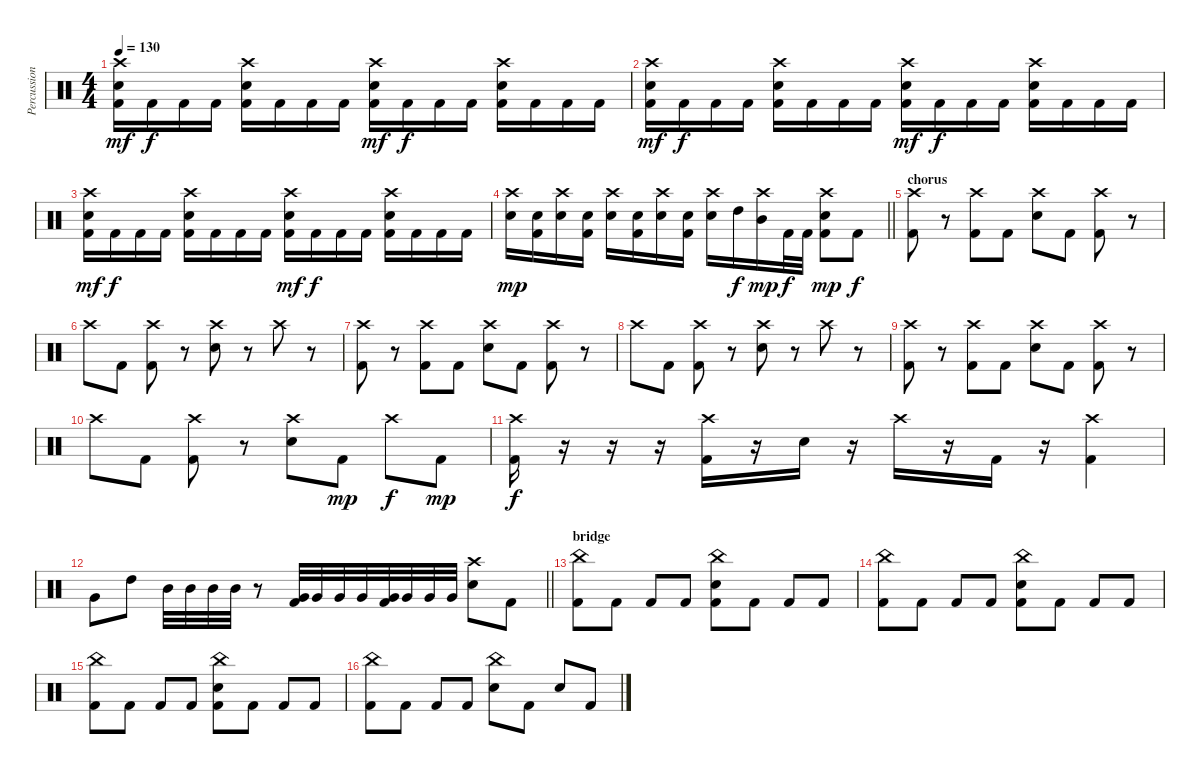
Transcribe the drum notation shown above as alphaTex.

\track ("Percussion" "Percussion") {instrument percussion}
\staff {score}
\articulation defaults
\ts (4 4)
\tempo 130
\clef neutral
\ks c
("Crash high (hit)" "Electric Snare (hit)" "Kick (hit) 2").16{dy mf} "Kick (hit) 2".16{dy f} "Kick (hit) 2".16 "Kick (hit) 2".16 ("Crash high (hit)" "Electric Snare (hit)" "Kick (hit) 2").16 "Kick (hit) 2".16 "Kick (hit) 2".16 "Kick (hit) 2".16 ("Crash high (hit)" "Electric Snare (hit)" "Kick (hit) 2").16{dy mf} "Kick (hit) 2".16{dy f} "Kick (hit) 2".16 "Kick (hit) 2".16 ("Crash high (hit)" "Electric Snare (hit)" "Kick (hit) 2").16 "Kick (hit) 2".16 "Kick (hit) 2".16 "Kick (hit) 2".16 |
("Crash high (hit)" "Electric Snare (hit)" "Kick (hit) 2").16{dy mf} "Kick (hit) 2".16{dy f} "Kick (hit) 2".16 "Kick (hit) 2".16 ("Crash high (hit)" "Electric Snare (hit)" "Kick (hit) 2").16 "Kick (hit) 2".16 "Kick (hit) 2".16 "Kick (hit) 2".16 ("Crash high (hit)" "Electric Snare (hit)" "Kick (hit) 2").16{dy mf} "Kick (hit) 2".16{dy f} "Kick (hit) 2".16 "Kick (hit) 2".16 ("Crash high (hit)" "Electric Snare (hit)" "Kick (hit) 2").16 "Kick (hit) 2".16 "Kick (hit) 2".16 "Kick (hit) 2".16 |
("Crash high (hit)" "Electric Snare (hit)" "Kick (hit) 2").16{dy mf} "Kick (hit) 2".16{dy f} "Kick (hit) 2".16 "Kick (hit) 2".16 ("Crash high (hit)" "Electric Snare (hit)" "Kick (hit) 2").16 "Kick (hit) 2".16 "Kick (hit) 2".16 "Kick (hit) 2".16 ("Crash high (hit)" "Electric Snare (hit)" "Kick (hit) 2").16{dy mf} "Kick (hit) 2".16{dy f} "Kick (hit) 2".16 "Kick (hit) 2".16 ("Crash high (hit)" "Electric Snare (hit)" "Kick (hit) 2").16 "Kick (hit) 2".16 "Kick (hit) 2".16 "Kick (hit) 2".16 |
\barLineRight lightlight
("Crash high (hit)" "Electric Snare (hit)").16{dy mp} ("Electric Snare (hit)" "Kick (hit) 2").16 ("Crash high (hit)" "Electric Snare (hit)").16 ("Electric Snare (hit)" "Kick (hit) 2").16 ("Crash high (hit)" "Electric Snare (hit)").16 ("Electric Snare (hit)" "Kick (hit) 2").16 ("Crash high (hit)" "Electric Snare (hit)").16 ("Electric Snare (hit)" "Kick (hit) 2").16 ("Crash high (hit)" "Electric Snare (hit)").16 "High Tom (hit)".16{dy f} ("Crash high (hit)" "Mid Tom (hit)").16{dy mp} "Kick (hit) 2".32{dy f} "Kick (hit) 2".32 ("Crash high (hit)" "Electric Snare (hit)" "Kick (hit) 2").8{dy mp} "Kick (hit) 2".8{dy f} |
\section ("" "chorus")
("Crash high (hit)" "Kick (hit) 2").8 r.8 ("Crash high (hit)" "Kick (hit) 2").8 "Kick (hit) 2".8 ("Crash high (hit)" "Electric Snare (hit)").8 "Kick (hit) 2".8 ("Crash high (hit)" "Kick (hit) 2").8 r.8 |
"Crash high (hit)".8 "Kick (hit) 2".8 ("Crash high (hit)" "Kick (hit) 2").8 r.8 ("Crash high (hit)" "Electric Snare (hit)").8 r.8 "Crash high (hit)".8 r.8 |
("Crash high (hit)" "Kick (hit) 2").8 r.8 ("Crash high (hit)" "Kick (hit) 2").8 "Kick (hit) 2".8 ("Crash high (hit)" "Electric Snare (hit)").8 "Kick (hit) 2".8 ("Crash high (hit)" "Kick (hit) 2").8 r.8 |
"Crash high (hit)".8 "Kick (hit) 2".8 ("Crash high (hit)" "Kick (hit) 2").8 r.8 ("Crash high (hit)" "Electric Snare (hit)").8 r.8 "Crash high (hit)".8 r.8 |
("Crash high (hit)" "Kick (hit) 2").8 r.8 ("Crash high (hit)" "Kick (hit) 2").8 "Kick (hit) 2".8 ("Crash high (hit)" "Electric Snare (hit)").8 "Kick (hit) 2".8 ("Crash high (hit)" "Kick (hit) 2").8 r.8 |
"Crash high (hit)".8 "Kick (hit) 2".8 ("Crash high (hit)" "Kick (hit) 2").8 r.8 ("Crash high (hit)" "Electric Snare (hit)").8 "Kick (hit) 2".8{dy mp} "Crash high (hit)".8{dy f} "Kick (hit) 2".8{dy mp} |
("Crash high (hit)" "Kick (hit) 2").16{dy f} r.16 r.16 r.16 ("Crash high (hit)" "Kick (hit) 2").16 r.16 "Electric Snare (hit)".16 r.16 "Crash high (hit)".16 r.16 "Kick (hit) 2".16 r.16 ("Crash high (hit)" "Kick (hit) 2").4 |
\barLineRight lightlight "Very Low Tom (hit)".8 "High Tom (hit)".8 "Mid Tom (hit)".32 "Mid Tom (hit)".32 "Mid Tom (hit)".32 "Mid Tom (hit)".32
r.8 ("Very Low Tom (hit)" "Kick (hit) 2").32 "Very Low Tom (hit)".32 "Very Low Tom (hit)".32 "Very Low Tom (hit)".32 ("Very Low Tom (hit)" "Kick (hit) 2").32 "Very Low Tom (hit)".32 "Very Low Tom (hit)".32 "Very Low Tom (hit)".32 ("Crash high (hit)" "Electric Snare (hit)").8 "Kick (hit) 2".8 |
\section ("" "bridge")
("China (hit)" "Kick (hit) 2").8 "Kick (hit) 2".8 "Kick (hit) 2".8 "Kick (hit) 2".8 ("China (hit)" "Electric Snare (hit)" "Kick (hit) 2").8 "Kick (hit) 2".8 "Kick (hit) 2".8 "Kick (hit) 2".8 |
("China (hit)" "Kick (hit) 2").8 "Kick (hit) 2".8 "Kick (hit) 2".8 "Kick (hit) 2".8 ("China (hit)" "Electric Snare (hit)" "Kick (hit) 2").8 "Kick (hit) 2".8 "Kick (hit) 2".8 "Kick (hit) 2".8 |
("China (hit)" "Kick (hit) 2").8 "Kick (hit) 2".8 "Kick (hit) 2".8 "Kick (hit) 2".8 ("China (hit)" "Electric Snare (hit)" "Kick (hit) 2").8 "Kick (hit) 2".8 "Kick (hit) 2".8 "Kick (hit) 2".8 |
("China (hit)" "Kick (hit) 2").8 "Kick (hit) 2".8 "Kick (hit) 2".8 "Kick (hit) 2".8 ("China (hit)" "Electric Snare (hit)").8 "Kick (hit) 2".8 "Electric Snare (hit)".8 "Kick (hit) 2".8
